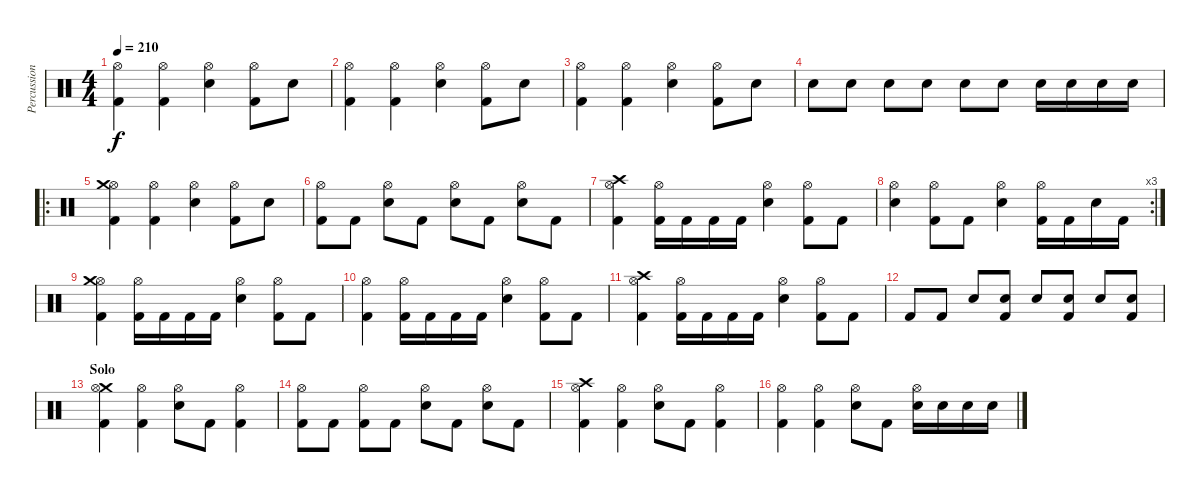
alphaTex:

\track ("Percussion" "Percussion") {instrument percussion}
\staff {score}
\articulation defaults
\ts (4 4)
\tempo 210
\clef neutral
\ks c
("Hi-Hat (open)" "Kick (hit) 2").4{dy f} ("Hi-Hat (open)" "Kick (hit) 2").4 ("Hi-Hat (open)" "Snare (hit) 2").4 ("Hi-Hat (open)" "Kick (hit) 2").8 "Snare (hit) 2".8 |
("Hi-Hat (open)" "Kick (hit) 2").4 ("Hi-Hat (open)" "Kick (hit) 2").4 ("Hi-Hat (open)" "Snare (hit) 2").4 ("Hi-Hat (open)" "Kick (hit) 2").8 "Snare (hit) 2".8 |
("Hi-Hat (open)" "Kick (hit) 2").4 ("Hi-Hat (open)" "Kick (hit) 2").4 ("Hi-Hat (open)" "Snare (hit) 2").4 ("Hi-Hat (open)" "Kick (hit) 2").8 "Snare (hit) 2".8 |
"Snare (hit) 2".8 "Snare (hit) 2".8 "Snare (hit) 2".8 "Snare (hit) 2".8 "Snare (hit) 2".8 "Snare (hit) 2".8 "Snare (hit) 2".16 "Snare (hit) 2".16 "Snare (hit) 2".16 "Snare (hit) 2".16 |
\ro
("Hi-Hat (open)" "Kick (hit) 2" "Crash medium (hit)").4 ("Hi-Hat (open)" "Kick (hit) 2").4 ("Hi-Hat (open)" "Snare (hit) 2").4 ("Hi-Hat (open)" "Kick (hit) 2").8 "Snare (hit) 2".8 |
("Hi-Hat (open)" "Kick (hit) 2").8 "Kick (hit) 2".8 ("Hi-Hat (open)" "Snare (hit) 2").8 "Kick (hit) 2".8 ("Hi-Hat (open)" "Snare (hit) 2").8 "Kick (hit) 2".8 ("Hi-Hat (open)" "Snare (hit) 2").8 "Kick (hit) 2".8 |
("Hi-Hat (open)" "Kick (hit) 2" "Crash high (hit)").4 ("Hi-Hat (open)" "Kick (hit) 2").16 "Kick (hit) 2".16 "Kick (hit) 2".16 "Kick (hit) 2".16 ("Hi-Hat (open)" "Snare (hit) 2").4 ("Hi-Hat (open)" "Kick (hit) 2").8 "Kick (hit) 2".8 |
\rc 3
("Hi-Hat (open)" "Snare (hit) 2").4 ("Hi-Hat (open)" "Kick (hit) 2").8 "Kick (hit) 2".8 ("Hi-Hat (open)" "Snare (hit) 2").4 ("Hi-Hat (open)" "Kick (hit) 2").16 "Kick (hit) 2".16 "Snare (hit) 2".16 "Kick (hit) 2".16 |
("Hi-Hat (open)" "Kick (hit) 2" "Crash medium (hit)").4 ("Hi-Hat (open)" "Kick (hit) 2").16 "Kick (hit) 2".16 "Kick (hit) 2".16 "Kick (hit) 2".16 ("Hi-Hat (open)" "Snare (hit) 2").4 ("Hi-Hat (open)" "Kick (hit) 2").8 "Kick (hit) 2".8 |
("Hi-Hat (open)" "Kick (hit) 2").4 ("Hi-Hat (open)" "Kick (hit) 2").16 "Kick (hit) 2".16 "Kick (hit) 2".16 "Kick (hit) 2".16 ("Hi-Hat (open)" "Snare (hit) 2").4 ("Hi-Hat (open)" "Kick (hit) 2").8 "Kick (hit) 2".8 |
("Hi-Hat (open)" "Kick (hit) 2" "Crash high (hit)").4 ("Hi-Hat (open)" "Kick (hit) 2").16 "Kick (hit) 2".16 "Kick (hit) 2".16 "Kick (hit) 2".16 ("Hi-Hat (open)" "Snare (hit) 2").4 ("Hi-Hat (open)" "Kick (hit) 2").8 "Kick (hit) 2".8 |
"Kick (hit) 2".8 "Kick (hit) 2".8 "Snare (hit) 2".8 ("Kick (hit) 2" "Snare (hit) 2").8 "Snare (hit) 2".8 ("Kick (hit) 2" "Snare (hit) 2").8 "Snare (hit) 2".8 ("Kick (hit) 2" "Snare (hit) 2").8 |
\section ("" "Solo")
("Kick (hit) 2" "Crash medium (hit)" "Hi-Hat (open)").4 ("Kick (hit) 2" "Hi-Hat (open)").4 ("Snare (hit) 2" "Hi-Hat (open)").8 "Kick (hit) 2".8 ("Kick (hit) 2" "Hi-Hat (open)").4 |
("Kick (hit) 2" "Hi-Hat (open)").8 "Kick (hit) 2".8 ("Kick (hit) 2" "Hi-Hat (open)").8 "Kick (hit) 2".8 ("Snare (hit) 2" "Hi-Hat (open)").8 "Kick (hit) 2".8 ("Snare (hit) 2" "Hi-Hat (open)").8 "Kick (hit) 2".8 |
("Kick (hit) 2" "Crash high (hit)" "Hi-Hat (open)").4 ("Kick (hit) 2" "Hi-Hat (open)").4 ("Snare (hit) 2" "Hi-Hat (open)").8 "Kick (hit) 2".8 ("Kick (hit) 2" "Hi-Hat (open)").4 |
("Kick (hit) 2" "Hi-Hat (open)").4 ("Kick (hit) 2" "Hi-Hat (open)").4 ("Snare (hit) 2" "Hi-Hat (open)").8 "Kick (hit) 2".8 ("Snare (hit) 2" "Hi-Hat (open)").16 "Snare (hit) 2".16 "Snare (hit) 2".16 "Snare (hit) 2".16
